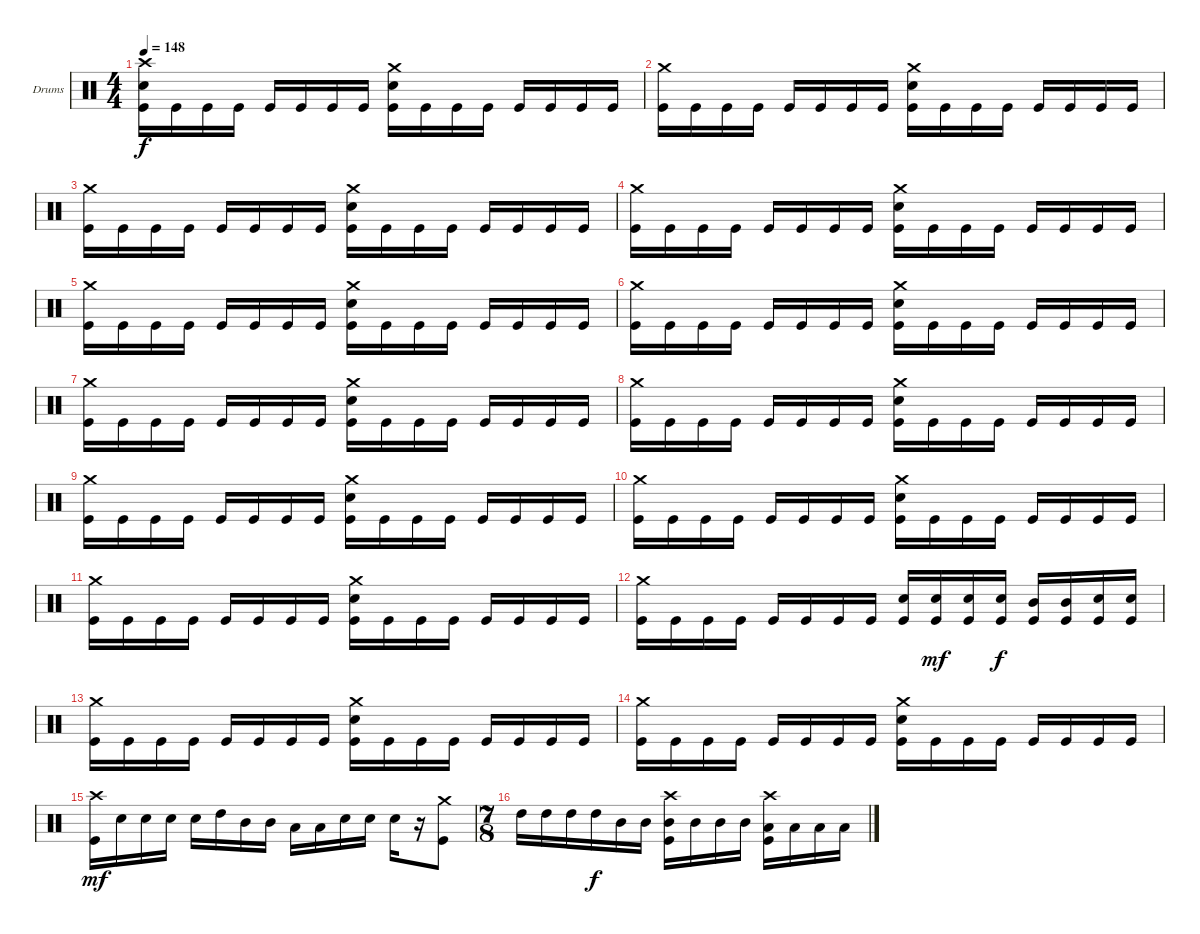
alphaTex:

\bracketExtendMode groupsimilarinstruments
\firstSystemTrackNameOrientation horizontal
\otherSystemsTrackNameOrientation horizontal
\track ("Drumkit" "Drums") {instrument percussion}
\staff {score}
\articulation defaults
\ts (4 4)
\beaming (8 2 2 2 2)
\tempo 148
\clef neutral
\ks c
("Crash high (hit)" "Snare (hit) 2" "Kick (hit)").16{dy f} "Kick (hit)".16 "Kick (hit)".16 "Kick (hit)".16 "Kick (hit)".16 "Kick (hit)".16 "Kick (hit)".16 "Kick (hit)".16 ("Crash medium (hit)" "Snare (hit) 2" "Kick (hit)").16 "Kick (hit)".16 "Kick (hit)".16 "Kick (hit)".16 "Kick (hit)".16 "Kick (hit)".16 "Kick (hit)".16 "Kick (hit)".16 |
("Crash medium (hit)" "Kick (hit)").16 "Kick (hit)".16 "Kick (hit)".16 "Kick (hit)".16 "Kick (hit)".16 "Kick (hit)".16 "Kick (hit)".16 "Kick (hit)".16 ("Crash medium (hit)" "Snare (hit) 2" "Kick (hit)").16 "Kick (hit)".16 "Kick (hit)".16 "Kick (hit)".16 "Kick (hit)".16 "Kick (hit)".16 "Kick (hit)".16 "Kick (hit)".16 |
("Crash medium (hit)" "Kick (hit)").16 "Kick (hit)".16 "Kick (hit)".16 "Kick (hit)".16 "Kick (hit)".16 "Kick (hit)".16 "Kick (hit)".16 "Kick (hit)".16 ("Crash medium (hit)" "Snare (hit) 2" "Kick (hit)").16 "Kick (hit)".16 "Kick (hit)".16 "Kick (hit)".16 "Kick (hit)".16 "Kick (hit)".16 "Kick (hit)".16 "Kick (hit)".16 |
("Crash medium (hit)" "Kick (hit)").16 "Kick (hit)".16 "Kick (hit)".16 "Kick (hit)".16 "Kick (hit)".16 "Kick (hit)".16 "Kick (hit)".16 "Kick (hit)".16 ("Crash medium (hit)" "Snare (hit) 2" "Kick (hit)").16 "Kick (hit)".16 "Kick (hit)".16 "Kick (hit)".16 "Kick (hit)".16 "Kick (hit)".16 "Kick (hit)".16 "Kick (hit)".16 |
("Crash medium (hit)" "Kick (hit)").16 "Kick (hit)".16 "Kick (hit)".16 "Kick (hit)".16 "Kick (hit)".16 "Kick (hit)".16 "Kick (hit)".16 "Kick (hit)".16 ("Crash medium (hit)" "Snare (hit) 2" "Kick (hit)").16 "Kick (hit)".16 "Kick (hit)".16 "Kick (hit)".16 "Kick (hit)".16 "Kick (hit)".16 "Kick (hit)".16 "Kick (hit)".16 |
("Crash medium (hit)" "Kick (hit)").16 "Kick (hit)".16 "Kick (hit)".16 "Kick (hit)".16 "Kick (hit)".16 "Kick (hit)".16 "Kick (hit)".16 "Kick (hit)".16 ("Crash medium (hit)" "Snare (hit) 2" "Kick (hit)").16 "Kick (hit)".16 "Kick (hit)".16 "Kick (hit)".16 "Kick (hit)".16 "Kick (hit)".16 "Kick (hit)".16 "Kick (hit)".16 |
("Crash medium (hit)" "Kick (hit)").16 "Kick (hit)".16 "Kick (hit)".16 "Kick (hit)".16 "Kick (hit)".16 "Kick (hit)".16 "Kick (hit)".16 "Kick (hit)".16 ("Crash medium (hit)" "Snare (hit) 2" "Kick (hit)").16 "Kick (hit)".16 "Kick (hit)".16 "Kick (hit)".16 "Kick (hit)".16 "Kick (hit)".16 "Kick (hit)".16 "Kick (hit)".16 |
("Crash medium (hit)" "Kick (hit)").16 "Kick (hit)".16 "Kick (hit)".16 "Kick (hit)".16 "Kick (hit)".16 "Kick (hit)".16 "Kick (hit)".16 "Kick (hit)".16 ("Crash medium (hit)" "Snare (hit) 2" "Kick (hit)").16 "Kick (hit)".16 "Kick (hit)".16 "Kick (hit)".16 "Kick (hit)".16 "Kick (hit)".16 "Kick (hit)".16 "Kick (hit)".16 |
("Crash medium (hit)" "Kick (hit)").16 "Kick (hit)".16 "Kick (hit)".16 "Kick (hit)".16 "Kick (hit)".16 "Kick (hit)".16 "Kick (hit)".16 "Kick (hit)".16 ("Crash medium (hit)" "Snare (hit) 2" "Kick (hit)").16 "Kick (hit)".16 "Kick (hit)".16 "Kick (hit)".16 "Kick (hit)".16 "Kick (hit)".16 "Kick (hit)".16 "Kick (hit)".16 |
("Crash medium (hit)" "Kick (hit)").16 "Kick (hit)".16 "Kick (hit)".16 "Kick (hit)".16 "Kick (hit)".16 "Kick (hit)".16 "Kick (hit)".16 "Kick (hit)".16 ("Crash medium (hit)" "Snare (hit) 2" "Kick (hit)").16 "Kick (hit)".16 "Kick (hit)".16 "Kick (hit)".16 "Kick (hit)".16 "Kick (hit)".16 "Kick (hit)".16 "Kick (hit)".16 |
("Crash medium (hit)" "Kick (hit)").16 "Kick (hit)".16 "Kick (hit)".16 "Kick (hit)".16 "Kick (hit)".16 "Kick (hit)".16 "Kick (hit)".16 "Kick (hit)".16 ("Crash medium (hit)" "Snare (hit) 2" "Kick (hit)").16 "Kick (hit)".16 "Kick (hit)".16 "Kick (hit)".16 "Kick (hit)".16 "Kick (hit)".16 "Kick (hit)".16 "Kick (hit)".16 |
("Crash medium (hit)" "Kick (hit)").16 "Kick (hit)".16 "Kick (hit)".16 "Kick (hit)".16 "Kick (hit)".16 "Kick (hit)".16 "Kick (hit)".16 "Kick (hit)".16 ("Snare (hit) 2" "Kick (hit)").16 ("Snare (hit) 2" "Kick (hit)").16{dy mf} ("Snare (hit) 2" "Kick (hit)").16 ("Snare (hit) 2" "Kick (hit)").16{dy f} ("Mid Tom (hit)" "Kick (hit)").16 ("Mid Tom (hit)" "Kick (hit)").16 ("Snare (hit) 2" "Kick (hit)").16 ("Snare (hit) 2" "Kick (hit)").16 |
("Crash medium (hit)" "Kick (hit)").16 "Kick (hit)".16 "Kick (hit)".16 "Kick (hit)".16 "Kick (hit)".16 "Kick (hit)".16 "Kick (hit)".16 "Kick (hit)".16 ("Crash medium (hit)" "Snare (hit) 2" "Kick (hit)").16 "Kick (hit)".16 "Kick (hit)".16 "Kick (hit)".16 "Kick (hit)".16 "Kick (hit)".16 "Kick (hit)".16 "Kick (hit)".16 |
("Crash medium (hit)" "Kick (hit)").16 "Kick (hit)".16 "Kick (hit)".16 "Kick (hit)".16 "Kick (hit)".16 "Kick (hit)".16 "Kick (hit)".16 "Kick (hit)".16 ("Crash medium (hit)" "Snare (hit) 2" "Kick (hit)").16 "Kick (hit)".16 "Kick (hit)".16 "Kick (hit)".16 "Kick (hit)".16 "Kick (hit)".16 "Kick (hit)".16 "Kick (hit)".16 |
("Crash high (hit)" "Kick (hit)").16{dy mf} "Snare (hit) 2".16 "Snare (hit) 2".16 "Snare (hit) 2".16 "Snare (hit) 2".16 "High Tom (hit)".16 "Mid Tom (hit)".16 "Mid Tom (hit)".16 "Low Tom (hit)".16 "Low Tom (hit)".16 "Snare (hit) 2".16 "Snare (hit) 2".16 "Snare (hit) 2".16 r.16 ("Crash medium (hit)" "Kick (hit)").8 |
\ts (7 8)
\beaming (8 3 2 2)
"High Tom (hit)".16 "High Tom (hit)".16 "High Tom (hit)".16 "High Tom (hit)".16{dy f} "Mid Tom (hit)".16 "Mid Tom (hit)".16 ("Crash high (hit)" "Mid Tom (hit)" "Kick (hit)").16 "Mid Tom (hit)".16 "Mid Tom (hit)".16 "Mid Tom (hit)".16 ("Crash high (hit)" "Low Tom (hit)" "Kick (hit)").16 "Low Tom (hit)".16 "Low Tom (hit)".16 "Low Tom (hit)".16
